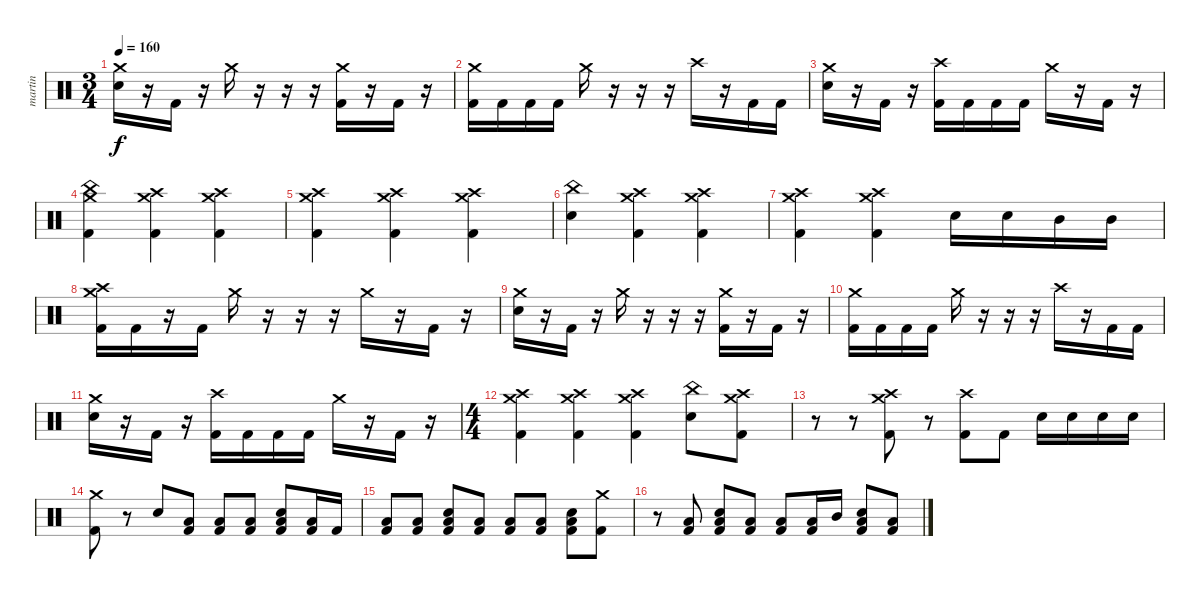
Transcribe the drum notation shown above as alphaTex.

\track ("martin" "martin") {instrument percussion}
\staff {score}
\articulation defaults
\ts (3 4)
\tempo 160
\clef neutral
\ks c
("Crash medium (hit)" "Electric Snare (hit)").16{dy f} r.16 "Kick (hit) 2".16 r.16 "Crash medium (hit)".16 r.16 r.16 r.16 ("Crash medium (hit)" "Kick (hit) 2").16 r.16 "Kick (hit) 2".16 r.16 |
("Crash medium (hit)" "Kick (hit) 2").16 "Kick (hit) 2".16 "Kick (hit) 2".16 "Kick (hit) 2".16 "Crash medium (hit)".16 r.16 r.16 r.16 "Crash high (hit)".16 r.16 "Kick (hit) 2".16 "Kick (hit) 2".16 |
("Crash medium (hit)" "Electric Snare (hit)").16 r.16 "Kick (hit) 2".16 r.16 ("Crash high (hit)" "Kick (hit) 2").16 "Kick (hit) 2".16 "Kick (hit) 2".16 "Kick (hit) 2".16 "Crash medium (hit)".16 r.16 "Kick (hit) 2".16 r.16 |
("Crash medium (hit)" "China (hit)" "Kick (hit) 2").4 ("Crash medium (hit)" "Crash high (hit)" "Kick (hit) 2").4 ("Crash medium (hit)" "Crash high (hit)" "Kick (hit) 2").4 |
("Crash medium (hit)" "Crash high (hit)" "Kick (hit) 2").4 ("Crash medium (hit)" "Crash high (hit)" "Kick (hit) 2").4 ("Crash medium (hit)" "Crash high (hit)" "Kick (hit) 2").4 |
("China (hit)" "Electric Snare (hit)").4 ("Crash medium (hit)" "Crash high (hit)" "Kick (hit) 2").4 ("Crash medium (hit)" "Crash high (hit)" "Kick (hit) 2").4 |
("Crash medium (hit)" "Crash high (hit)" "Kick (hit) 2").4 ("Crash medium (hit)" "Crash high (hit)" "Kick (hit) 2").4 "Electric Snare (hit)".16 "Electric Snare (hit)".16 "Mid Tom (hit)".16 "Mid Tom (hit)".16 |
("Crash medium (hit)" "Crash high (hit)" "Kick (hit) 2").16 "Kick (hit) 2".16 r.16 "Kick (hit) 2".16 "Crash medium (hit)".16 r.16 r.16 r.16 "Crash medium (hit)".16 r.16 "Kick (hit) 2".16 r.16 |
("Crash medium (hit)" "Electric Snare (hit)").16 r.16 "Kick (hit) 2".16 r.16 "Crash medium (hit)".16 r.16 r.16 r.16 ("Crash medium (hit)" "Kick (hit) 2").16 r.16 "Kick (hit) 2".16 r.16 |
("Crash medium (hit)" "Kick (hit) 2").16 "Kick (hit) 2".16 "Kick (hit) 2".16 "Kick (hit) 2".16 "Crash medium (hit)".16 r.16 r.16 r.16 "Crash high (hit)".16 r.16 "Kick (hit) 2".16 "Kick (hit) 2".16 |
("Crash medium (hit)" "Electric Snare (hit)").16 r.16 "Kick (hit) 2".16 r.16 ("Crash high (hit)" "Kick (hit) 2").16 "Kick (hit) 2".16 "Kick (hit) 2".16 "Kick (hit) 2".16 "Crash medium (hit)".16 r.16 "Kick (hit) 2".16 r.16 |
\ts (4 4)
("Crash high (hit)" "Crash medium (hit)" "Kick (hit) 2").4 ("Crash medium (hit)" "Crash high (hit)" "Kick (hit) 2").4 ("Crash high (hit)" "Crash medium (hit)" "Kick (hit) 2").4 ("China (hit)" "Electric Snare (hit)").8 ("Crash high (hit)" "Crash medium (hit)" "Kick (hit) 2").8 |
r.8 r.8 ("Crash high (hit)" "Crash medium (hit)" "Kick (hit) 2").8 r.8 ("Crash high (hit)" "Kick (hit) 2").8 "Kick (hit) 2".8 "Electric Snare (hit)".16 "Electric Snare (hit)".16 "Electric Snare (hit)".16 "Electric Snare (hit)".16 |
("Crash medium (hit)" "Kick (hit) 2").8 r.8 "Electric Snare (hit)".8 ("Kick (hit) 2" "Low Floor Tom (hit)").8 ("Kick (hit) 2" "Low Floor Tom (hit)").8 ("Kick (hit) 2" "Low Floor Tom (hit)").8 ("Electric Snare (hit)" "Kick (hit) 2" "Low Floor Tom (hit)").8 ("Kick (hit) 2" "Low Floor Tom (hit)").16 "Kick (hit) 2".16 |
("Low Floor Tom (hit)" "Kick (hit) 2").8 ("Low Floor Tom (hit)" "Kick (hit) 2").8 ("Electric Snare (hit)" "Low Floor Tom (hit)" "Kick (hit) 2").8 ("Low Floor Tom (hit)" "Kick (hit) 2").8 ("Low Floor Tom (hit)" "Kick (hit) 2").8 ("Low Floor Tom (hit)" "Kick (hit) 2").8 ("Electric Snare (hit)" "Low Floor Tom (hit)" "Kick (hit) 2").8 ("Crash medium (hit)" "Kick (hit) 2").8 |
r.8 ("Low Floor Tom (hit)" "Kick (hit) 2").8 ("Electric Snare (hit)" "Low Floor Tom (hit)" "Kick (hit) 2").8 ("Low Floor Tom (hit)" "Kick (hit) 2").8 ("Low Floor Tom (hit)" "Kick (hit) 2").8 ("Low Floor Tom (hit)" "Kick (hit) 2").16 "Mid Tom (hit)".16 ("Electric Snare (hit)" "Low Floor Tom (hit)" "Kick (hit) 2").8 ("Low Floor Tom (hit)" "Kick (hit) 2").8
